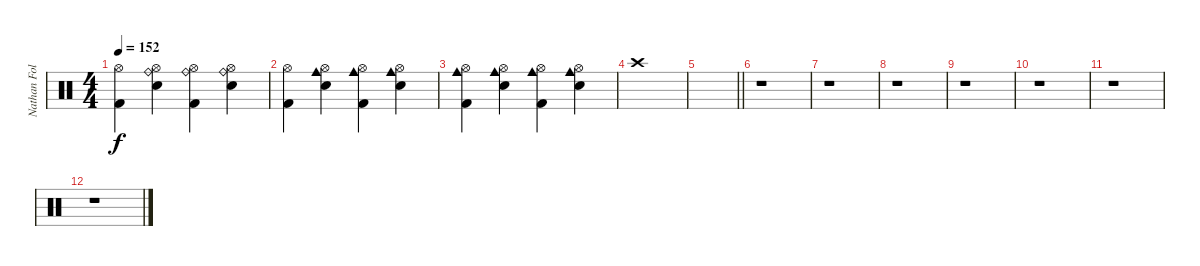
\track ("Nathan Followill" "Nathan Fol") {instrument percussion}
\staff {score}
\articulation defaults
\ts (4 4)
\tempo 152
\clef neutral
\ks c
("Hi-Hat (open)" "Kick (hit) 2").4{dy f} ("Hi-Hat (open)" "Ride (bell)" "Electric Snare (hit)").4 ("Hi-Hat (open)" "Ride (bell)" "Kick (hit) 2").4 ("Hi-Hat (open)" "Ride (bell)" "Electric Snare (hit)").4 |
("Hi-Hat (open)" "Kick (hit) 2").4 ("Hi-Hat (open)" "Cowbell medium (hit)" "Electric Snare (hit)").4 ("Hi-Hat (open)" "Cowbell medium (hit)" "Kick (hit) 2").4 ("Hi-Hat (open)" "Cowbell medium (hit)" "Electric Snare (hit)").4 |
("Hi-Hat (open)" "Cowbell medium (hit)" "Kick (hit) 2").4 ("Hi-Hat (open)" "Cowbell medium (hit)" "Electric Snare (hit)").4 ("Hi-Hat (open)" "Cowbell medium (hit)" "Kick (hit) 2").4 ("Hi-Hat (open)" "Cowbell medium (hit)" "Electric Snare (hit)").4 |
"Crash high (hit)".1 |
\barLineRight lightlight
|
r.1 |
r.1 |
r.1 |
r.1 |
r.1 |
r.1 |
r.1
